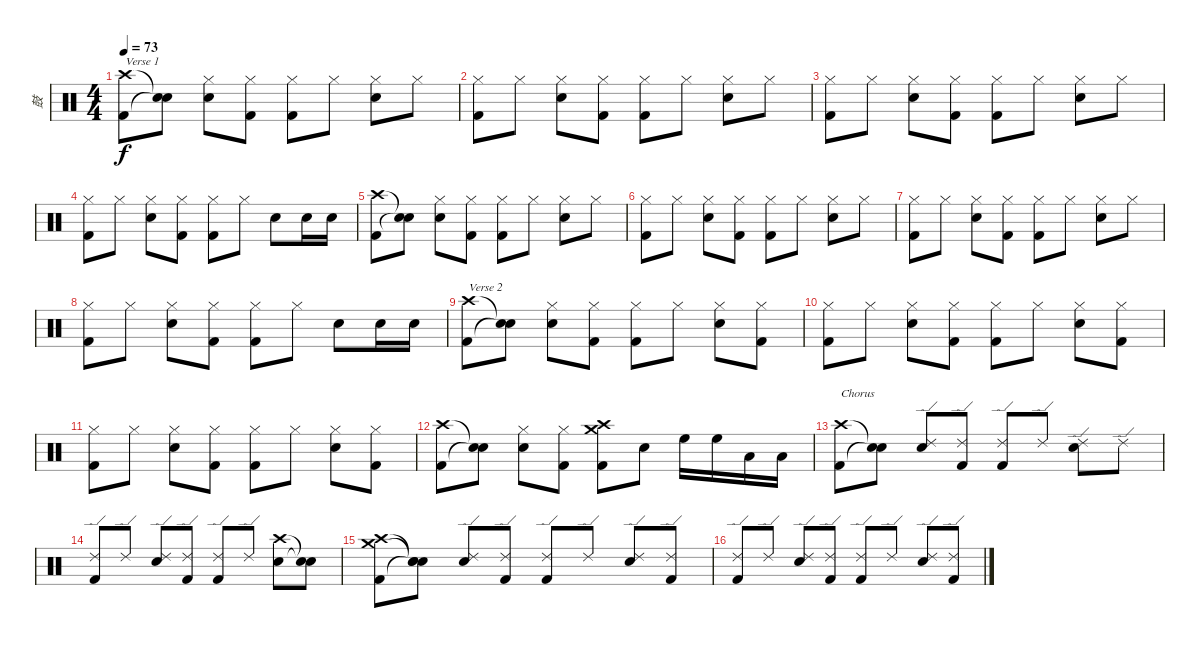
\track ("鼓" "鼓") {instrument percussion}
\staff {score}
\articulation defaults
\ts (4 4)
\tempo 73
\clef neutral
\ks c
("Crash high (hit)" "Kick (hit) 2").8{txt "Verse 1" dy f} ("Snare (hit)"{t} "Snare (hit)"{t}).8 ("Hi-Hat (closed)" "Electric Snare (hit)").8 ("Hi-Hat (closed)" "Kick (hit) 2").8 ("Hi-Hat (closed)" "Kick (hit) 2").8 "Hi-Hat (closed)".8 ("Hi-Hat (closed)" "Electric Snare (hit)").8 "Hi-Hat (closed)".8 |
("Hi-Hat (closed)" "Kick (hit) 2").8 "Hi-Hat (closed)".8 ("Hi-Hat (closed)" "Electric Snare (hit)").8 ("Hi-Hat (closed)" "Kick (hit) 2").8 ("Hi-Hat (closed)" "Kick (hit) 2").8 "Hi-Hat (closed)".8 ("Hi-Hat (closed)" "Electric Snare (hit)").8 "Hi-Hat (closed)".8 |
("Hi-Hat (closed)" "Kick (hit) 2").8 "Hi-Hat (closed)".8 ("Hi-Hat (closed)" "Electric Snare (hit)").8 ("Hi-Hat (closed)" "Kick (hit) 2").8 ("Hi-Hat (closed)" "Kick (hit) 2").8 "Hi-Hat (closed)".8 ("Hi-Hat (closed)" "Electric Snare (hit)").8 "Hi-Hat (closed)".8 |
("Hi-Hat (closed)" "Kick (hit) 2").8 "Hi-Hat (closed)".8 ("Hi-Hat (closed)" "Electric Snare (hit)").8 ("Hi-Hat (closed)" "Kick (hit) 2").8 ("Hi-Hat (closed)" "Kick (hit) 2").8 "Hi-Hat (closed)".8 "Electric Snare (hit)".8 "Electric Snare (hit)".16 "Electric Snare (hit)".16 |
("Crash high (hit)" "Kick (hit) 2").8 ("Snare (hit)"{t} "Snare (hit)"{t}).8 ("Hi-Hat (closed)" "Electric Snare (hit)").8 ("Hi-Hat (closed)" "Kick (hit) 2").8 ("Hi-Hat (closed)" "Kick (hit) 2").8 "Hi-Hat (closed)".8 ("Hi-Hat (closed)" "Electric Snare (hit)").8 "Hi-Hat (closed)".8 |
("Hi-Hat (closed)" "Kick (hit) 2").8 "Hi-Hat (closed)".8 ("Hi-Hat (closed)" "Electric Snare (hit)").8 ("Hi-Hat (closed)" "Kick (hit) 2").8 ("Hi-Hat (closed)" "Kick (hit) 2").8 "Hi-Hat (closed)".8 ("Hi-Hat (closed)" "Electric Snare (hit)").8 "Hi-Hat (closed)".8 |
("Hi-Hat (closed)" "Kick (hit) 2").8 "Hi-Hat (closed)".8 ("Hi-Hat (closed)" "Electric Snare (hit)").8 ("Hi-Hat (closed)" "Kick (hit) 2").8 ("Hi-Hat (closed)" "Kick (hit) 2").8 "Hi-Hat (closed)".8 ("Hi-Hat (closed)" "Electric Snare (hit)").8 "Hi-Hat (closed)".8 |
("Hi-Hat (closed)" "Kick (hit) 2").8 "Hi-Hat (closed)".8 ("Hi-Hat (closed)" "Electric Snare (hit)").8 ("Hi-Hat (closed)" "Kick (hit) 2").8 ("Hi-Hat (closed)" "Kick (hit) 2").8 "Hi-Hat (closed)".8 "Electric Snare (hit)".8 "Electric Snare (hit)".16 "Electric Snare (hit)".16 |
("Crash high (hit)" "Kick (hit) 2").8{txt "Verse 2"} ("Snare (hit)"{t} "Snare (hit)"{t}).8 ("Hi-Hat (closed)" "Electric Snare (hit)").8 ("Hi-Hat (closed)" "Kick (hit) 2").8 ("Hi-Hat (closed)" "Kick (hit) 2").8 "Hi-Hat (closed)".8 ("Hi-Hat (closed)" "Electric Snare (hit)").8 ("Hi-Hat (closed)" "Kick (hit) 2").8 |
("Hi-Hat (closed)" "Kick (hit) 2").8 "Hi-Hat (closed)".8 ("Hi-Hat (closed)" "Electric Snare (hit)").8 ("Hi-Hat (closed)" "Kick (hit) 2").8 ("Hi-Hat (closed)" "Kick (hit) 2").8 "Hi-Hat (closed)".8 ("Hi-Hat (closed)" "Electric Snare (hit)").8 ("Hi-Hat (closed)" "Kick (hit) 2").8 |
("Hi-Hat (closed)" "Kick (hit) 2").8 "Hi-Hat (closed)".8 ("Hi-Hat (closed)" "Electric Snare (hit)").8 ("Hi-Hat (closed)" "Kick (hit) 2").8 ("Hi-Hat (closed)" "Kick (hit) 2").8 "Hi-Hat (closed)".8 ("Hi-Hat (closed)" "Electric Snare (hit)").8 ("Hi-Hat (closed)" "Kick (hit) 2").8 |
("Crash high (hit)" "Kick (hit) 2").8 ("Snare (hit)"{t} "Snare (hit)"{t}).8 ("Hi-Hat (closed)" "Electric Snare (hit)").8 ("Hi-Hat (closed)" "Kick (hit) 2").8 ("Crash high (hit)" "Crash medium (hit)" "Kick (hit) 2").8 "Electric Snare (hit)".8 "High Floor Tom (hit)".16 "High Floor Tom (hit)".16 "Low Tom (hit)".16 "Low Tom (hit)".16 |
("Crash high (hit)" "Kick (hit) 2").8{txt "Chorus"} ("Snare (hit)"{t} "Snare (hit)"{t}).8 ("Ride (edge) 2" "Electric Snare (hit)").8 ("Ride (edge) 2" "Kick (hit) 2").8 ("Ride (edge) 2" "Kick (hit) 2").8 "Ride (edge) 2".8 ("Ride (edge) 2" "Electric Snare (hit)").8 "Ride (edge) 2".8 |
("Ride (edge) 2" "Kick (hit) 2").8 "Ride (edge) 2".8 ("Ride (edge) 2" "Electric Snare (hit)").8 ("Ride (edge) 2" "Kick (hit) 2").8 ("Ride (edge) 2" "Kick (hit) 2").8 "Ride (edge) 2".8 ("Crash high (hit)" "Electric Snare (hit)").8 ("Snare (hit)"{t} "Snare (hit)"{t}).8 |
("Crash high (hit)" "Crash medium (hit)" "Kick (hit) 2").8 ("Snare (hit)"{t} "Snare (hit)"{t} "Snare (hit)"{t}).8 ("Ride (edge) 2" "Electric Snare (hit)").8 ("Ride (edge) 2" "Kick (hit) 2").8 ("Ride (edge) 2" "Kick (hit) 2").8 "Ride (edge) 2".8 ("Ride (edge) 2" "Electric Snare (hit)").8 ("Ride (edge) 2" "Kick (hit) 2").8 |
("Ride (edge) 2" "Kick (hit) 2").8 "Ride (edge) 2".8 ("Ride (edge) 2" "Electric Snare (hit)").8 ("Ride (edge) 2" "Kick (hit) 2").8 ("Ride (edge) 2" "Kick (hit) 2").8 "Ride (edge) 2".8 ("Ride (edge) 2" "Electric Snare (hit)").8 ("Ride (edge) 2" "Kick (hit) 2").8
